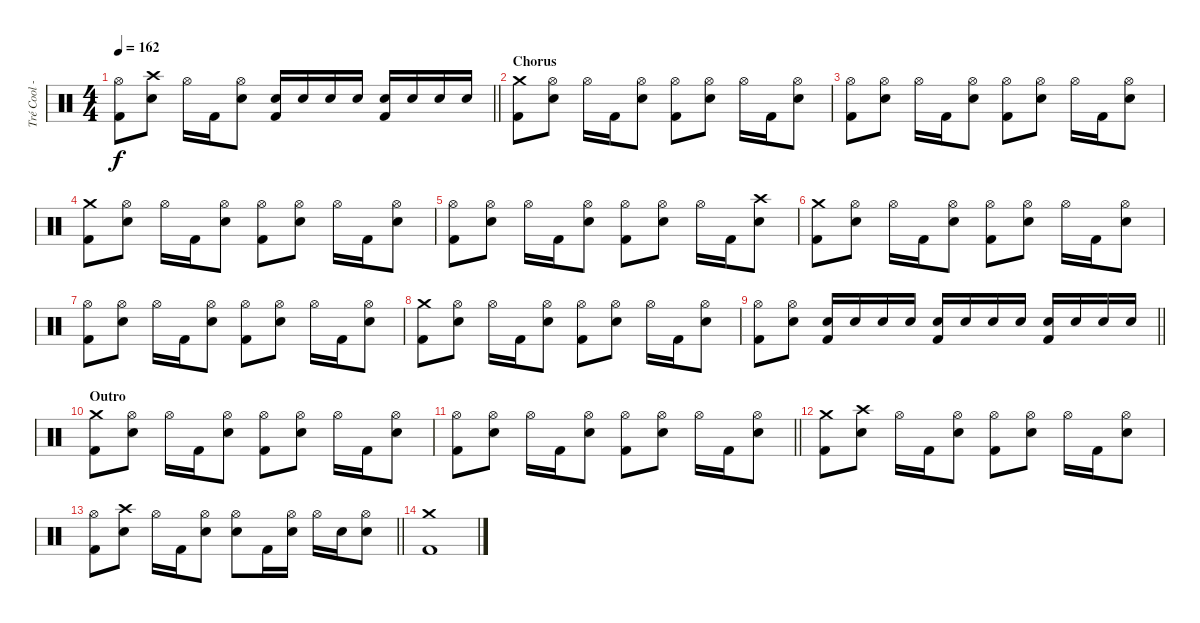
\track ("Tré Cool - Drums" "Tré Cool -") {instrument percussion}
\staff {score}
\articulation defaults
\ts (4 4)
\tempo 162
\clef neutral
\barLineRight lightlight
\ks c
("Hi-Hat (open)" "Kick (hit) 2").8{dy f} ("Crash high (hit)" "Electric Snare (hit)").8 "Hi-Hat (open)".16 "Kick (hit) 2".16 ("Hi-Hat (open)" "Electric Snare (hit)").8 ("Electric Snare (hit)" "Kick (hit) 2").16 "Electric Snare (hit)".16 "Electric Snare (hit)".16 "Electric Snare (hit)".16 ("Electric Snare (hit)" "Kick (hit) 2").16 "Electric Snare (hit)".16 "Electric Snare (hit)".16 "Electric Snare (hit)".16 |
\section ("" "Chorus")
("Crash medium (hit)" "Kick (hit) 2").8 ("Hi-Hat (open)" "Electric Snare (hit)").8 "Hi-Hat (open)".16 "Kick (hit) 2".16 ("Hi-Hat (open)" "Electric Snare (hit)").8 ("Hi-Hat (open)" "Kick (hit) 2").8 ("Hi-Hat (open)" "Electric Snare (hit)").8 "Hi-Hat (open)".16 "Kick (hit) 2".16 ("Hi-Hat (open)" "Electric Snare (hit)").8 |
("Hi-Hat (open)" "Kick (hit) 2").8 ("Hi-Hat (open)" "Electric Snare (hit)").8 "Hi-Hat (open)".16 "Kick (hit) 2".16 ("Hi-Hat (open)" "Electric Snare (hit)").8 ("Hi-Hat (open)" "Kick (hit) 2").8 ("Hi-Hat (open)" "Electric Snare (hit)").8 "Hi-Hat (open)".16 "Kick (hit) 2".16 ("Hi-Hat (open)" "Electric Snare (hit)").8 |
("Crash medium (hit)" "Kick (hit) 2").8 ("Hi-Hat (open)" "Electric Snare (hit)").8 "Hi-Hat (open)".16 "Kick (hit) 2".16 ("Hi-Hat (open)" "Electric Snare (hit)").8 ("Hi-Hat (open)" "Kick (hit) 2").8 ("Hi-Hat (open)" "Electric Snare (hit)").8 "Hi-Hat (open)".16 "Kick (hit) 2".16 ("Hi-Hat (open)" "Electric Snare (hit)").8 |
("Hi-Hat (open)" "Kick (hit) 2").8 ("Hi-Hat (open)" "Electric Snare (hit)").8 "Hi-Hat (open)".16 "Kick (hit) 2".16 ("Hi-Hat (open)" "Electric Snare (hit)").8 ("Hi-Hat (open)" "Kick (hit) 2").8 ("Hi-Hat (open)" "Electric Snare (hit)").8 "Hi-Hat (open)".16 "Kick (hit) 2".16 ("Crash high (hit)" "Electric Snare (hit)").8 |
("Crash medium (hit)" "Kick (hit) 2").8 ("Hi-Hat (open)" "Electric Snare (hit)").8 "Hi-Hat (open)".16 "Kick (hit) 2".16 ("Hi-Hat (open)" "Electric Snare (hit)").8 ("Hi-Hat (open)" "Kick (hit) 2").8 ("Hi-Hat (open)" "Electric Snare (hit)").8 "Hi-Hat (open)".16 "Kick (hit) 2".16 ("Hi-Hat (open)" "Electric Snare (hit)").8 |
("Hi-Hat (open)" "Kick (hit) 2").8 ("Hi-Hat (open)" "Electric Snare (hit)").8 "Hi-Hat (open)".16 "Kick (hit) 2".16 ("Hi-Hat (open)" "Electric Snare (hit)").8 ("Hi-Hat (open)" "Kick (hit) 2").8 ("Hi-Hat (open)" "Electric Snare (hit)").8 "Hi-Hat (open)".16 "Kick (hit) 2".16 ("Hi-Hat (open)" "Electric Snare (hit)").8 |
("Crash medium (hit)" "Kick (hit) 2").8 ("Hi-Hat (open)" "Electric Snare (hit)").8 "Hi-Hat (open)".16 "Kick (hit) 2".16 ("Hi-Hat (open)" "Electric Snare (hit)").8 ("Hi-Hat (open)" "Kick (hit) 2").8 ("Hi-Hat (open)" "Electric Snare (hit)").8 "Hi-Hat (open)".16 "Kick (hit) 2".16 ("Hi-Hat (open)" "Electric Snare (hit)").8 |
\barLineRight lightlight
("Hi-Hat (open)" "Kick (hit) 2").8 ("Hi-Hat (open)" "Electric Snare (hit)").8 ("Electric Snare (hit)" "Kick (hit) 2").16 "Electric Snare (hit)".16 "Electric Snare (hit)".16 "Electric Snare (hit)".16 ("Electric Snare (hit)" "Kick (hit) 2").16 "Electric Snare (hit)".16 "Electric Snare (hit)".16 "Electric Snare (hit)".16 ("Electric Snare (hit)" "Kick (hit) 2").16 "Electric Snare (hit)".16 "Electric Snare (hit)".16 "Electric Snare (hit)".16 |
\section ("" "Outro")
("Crash medium (hit)" "Kick (hit) 2").8 ("Hi-Hat (open)" "Electric Snare (hit)").8 "Hi-Hat (open)".16 "Kick (hit) 2".16 ("Hi-Hat (open)" "Electric Snare (hit)").8 ("Hi-Hat (open)" "Kick (hit) 2").8 ("Hi-Hat (open)" "Electric Snare (hit)").8 "Hi-Hat (open)".16 "Kick (hit) 2".16 ("Hi-Hat (open)" "Electric Snare (hit)").8 |
\barLineRight lightlight
("Hi-Hat (open)" "Kick (hit) 2").8 ("Hi-Hat (open)" "Electric Snare (hit)").8 "Hi-Hat (open)".16 "Kick (hit) 2".16 ("Hi-Hat (open)" "Electric Snare (hit)").8 ("Hi-Hat (open)" "Kick (hit) 2").8 ("Hi-Hat (open)" "Electric Snare (hit)").8 "Hi-Hat (open)".16 "Kick (hit) 2".16 ("Hi-Hat (open)" "Electric Snare (hit)").8 |
("Crash medium (hit)" "Kick (hit) 2").8 ("Crash high (hit)" "Electric Snare (hit)").8 "Hi-Hat (open)".16 "Kick (hit) 2".16 ("Hi-Hat (open)" "Electric Snare (hit)").8 ("Hi-Hat (open)" "Kick (hit) 2").8 ("Hi-Hat (open)" "Electric Snare (hit)").8 "Hi-Hat (open)".16 "Kick (hit) 2".16 ("Hi-Hat (open)" "Electric Snare (hit)").8 |
\barLineRight lightlight
("Hi-Hat (open)" "Kick (hit) 2").8 ("Crash high (hit)" "Electric Snare (hit)").8 "Hi-Hat (open)".16 "Kick (hit) 2".16 ("Hi-Hat (open)" "Electric Snare (hit)").8 ("Hi-Hat (open)" "Electric Snare (hit)").8 "Kick (hit) 2".16 ("Hi-Hat (open)" "Electric Snare (hit)").16 "Hi-Hat (open)".16 "Electric Snare (hit)".16 ("Hi-Hat (open)" "Electric Snare (hit)").8 |
("Crash medium (hit)" "Kick (hit) 2").1
